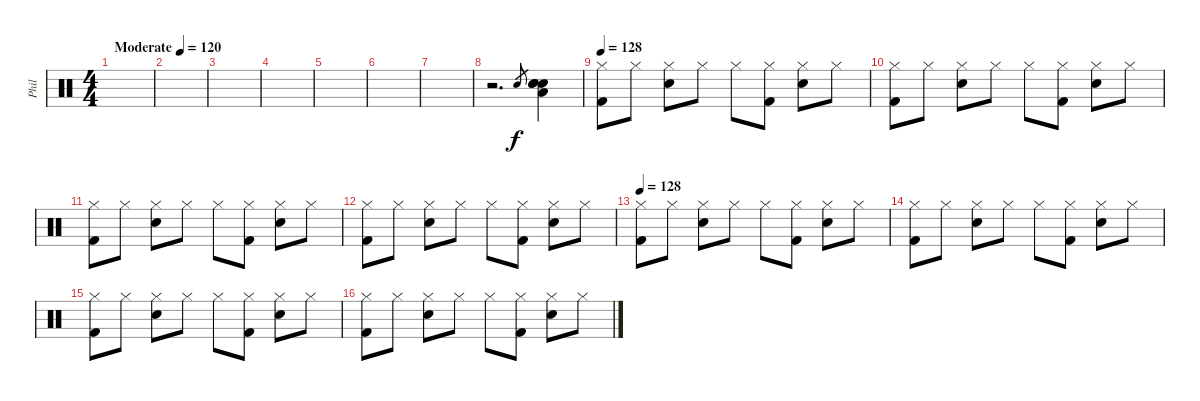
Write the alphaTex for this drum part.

\track ("Phil" "Phil") {instrument percussion}
\staff {score}
\articulation defaults
\ts (4 4)
\tempo (120 "Moderate")
\clef neutral
\ks c
|
|
|
|
|
|
|
r.2{d} "Electric Snare (hit)".8{gr} ("Low Floor Tom (hit)" "Electric Snare (hit)" "Electric Snare (hit)" "Electric Snare (hit)").4 |
\tempo 128
("Hi-Hat (closed)" "Kick (hit) 2").8 "Hi-Hat (closed)".8 ("Hi-Hat (closed)" "Electric Snare (hit)").8 "Hi-Hat (closed)".8 "Hi-Hat (closed)".8 ("Hi-Hat (closed)" "Kick (hit) 2").8 ("Hi-Hat (closed)" "Electric Snare (hit)").8 "Hi-Hat (closed)".8 |
("Hi-Hat (closed)" "Kick (hit) 2").8 "Hi-Hat (closed)".8 ("Hi-Hat (closed)" "Electric Snare (hit)").8 "Hi-Hat (closed)".8 "Hi-Hat (closed)".8 ("Hi-Hat (closed)" "Kick (hit) 2").8 ("Hi-Hat (closed)" "Electric Snare (hit)").8 "Hi-Hat (closed)".8 |
("Hi-Hat (closed)" "Kick (hit) 2").8 "Hi-Hat (closed)".8 ("Hi-Hat (closed)" "Electric Snare (hit)").8 "Hi-Hat (closed)".8 "Hi-Hat (closed)".8 ("Hi-Hat (closed)" "Kick (hit) 2").8 ("Hi-Hat (closed)" "Electric Snare (hit)").8 "Hi-Hat (closed)".8 |
("Hi-Hat (closed)" "Kick (hit) 2").8 "Hi-Hat (closed)".8 ("Hi-Hat (closed)" "Electric Snare (hit)").8 "Hi-Hat (closed)".8 "Hi-Hat (closed)".8 ("Hi-Hat (closed)" "Kick (hit) 2").8 ("Hi-Hat (closed)" "Electric Snare (hit)").8 "Hi-Hat (closed)".8 |
\tempo 128
("Hi-Hat (closed)" "Kick (hit) 2").8 "Hi-Hat (closed)".8 ("Hi-Hat (closed)" "Electric Snare (hit)").8 "Hi-Hat (closed)".8 "Hi-Hat (closed)".8 ("Hi-Hat (closed)" "Kick (hit) 2").8 ("Hi-Hat (closed)" "Electric Snare (hit)").8 "Hi-Hat (closed)".8 |
("Hi-Hat (closed)" "Kick (hit) 2").8 "Hi-Hat (closed)".8 ("Hi-Hat (closed)" "Electric Snare (hit)").8 "Hi-Hat (closed)".8 "Hi-Hat (closed)".8 ("Hi-Hat (closed)" "Kick (hit) 2").8 ("Hi-Hat (closed)" "Electric Snare (hit)").8 "Hi-Hat (closed)".8 |
("Hi-Hat (closed)" "Kick (hit) 2").8 "Hi-Hat (closed)".8 ("Hi-Hat (closed)" "Electric Snare (hit)").8 "Hi-Hat (closed)".8 "Hi-Hat (closed)".8 ("Hi-Hat (closed)" "Kick (hit) 2").8 ("Hi-Hat (closed)" "Electric Snare (hit)").8 "Hi-Hat (closed)".8 |
("Hi-Hat (closed)" "Kick (hit) 2").8 "Hi-Hat (closed)".8 ("Hi-Hat (closed)" "Electric Snare (hit)").8 "Hi-Hat (closed)".8 "Hi-Hat (closed)".8 ("Hi-Hat (closed)" "Kick (hit) 2").8 ("Hi-Hat (closed)" "Electric Snare (hit)").8 "Hi-Hat (closed)".8
